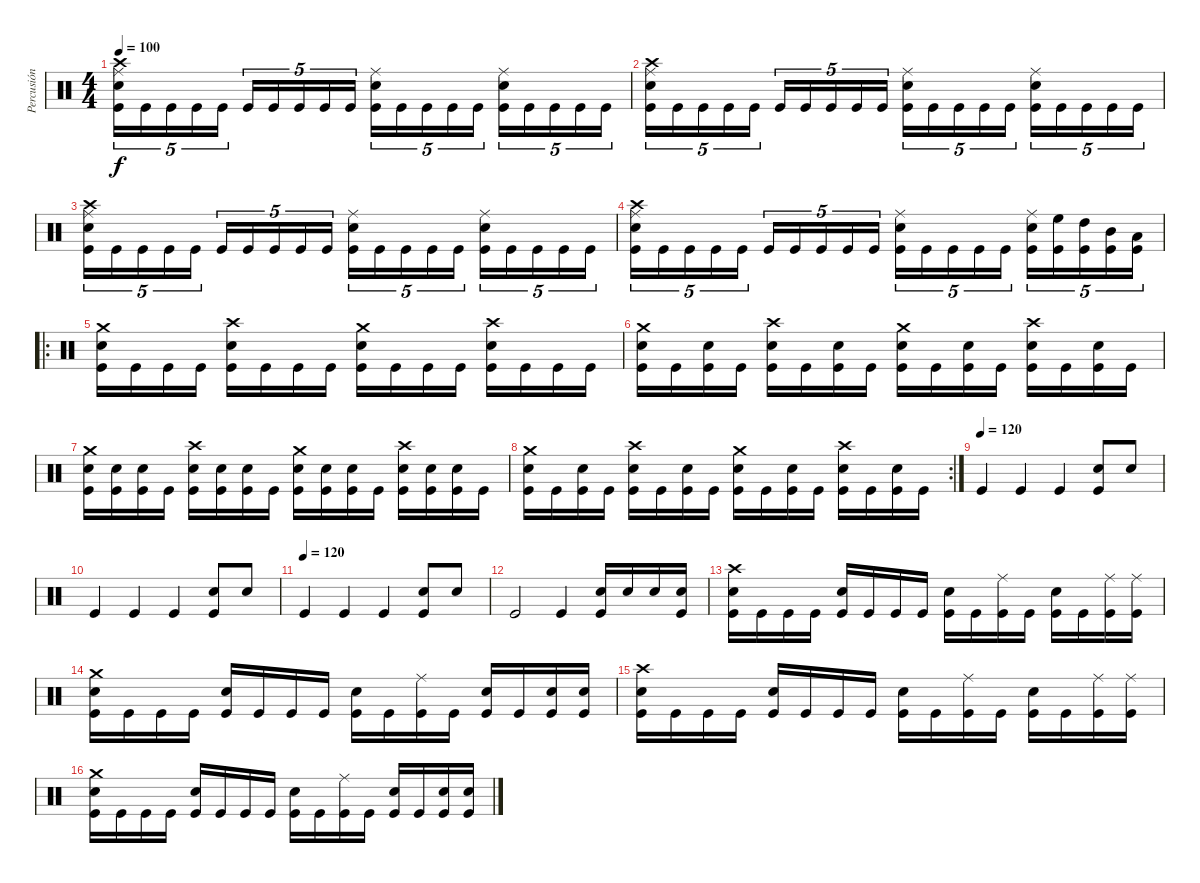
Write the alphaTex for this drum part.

\track ("Percusión" "Percusión") {instrument percussion}
\staff {score}
\articulation defaults
\ts (4 4)
\tempo 100
\clef neutral
\ks c
("Crash high (hit)" "Ride (middle)" "Electric Snare (hit)" "Kick (hit)").16{tu (5 4) dy f} "Kick (hit)".16{tu (5 4)} "Kick (hit)".16{tu (5 4)} "Kick (hit)".16{tu (5 4)} "Kick (hit)".16{tu (5 4)} "Kick (hit)".16{tu (5 4)} "Kick (hit)".16{tu (5 4)} "Kick (hit)".16{tu (5 4)} "Kick (hit)".16{tu (5 4)} "Kick (hit)".16{tu (5 4)} ("Ride (middle)" "Electric Snare (hit)" "Kick (hit)").16{tu (5 4)} "Kick (hit)".16{tu (5 4)} "Kick (hit)".16{tu (5 4)} "Kick (hit)".16{tu (5 4)} "Kick (hit)".16{tu (5 4)} ("Ride (middle)" "Electric Snare (hit)" "Kick (hit)").16{tu (5 4)} "Kick (hit)".16{tu (5 4)} "Kick (hit)".16{tu (5 4)} "Kick (hit)".16{tu (5 4)} "Kick (hit)".16{tu (5 4)} |
("Crash high (hit)" "Ride (middle)" "Electric Snare (hit)" "Kick (hit)").16{tu (5 4)} "Kick (hit)".16{tu (5 4)} "Kick (hit)".16{tu (5 4)} "Kick (hit)".16{tu (5 4)} "Kick (hit)".16{tu (5 4)} "Kick (hit)".16{tu (5 4)} "Kick (hit)".16{tu (5 4)} "Kick (hit)".16{tu (5 4)} "Kick (hit)".16{tu (5 4)} "Kick (hit)".16{tu (5 4)} ("Ride (middle)" "Electric Snare (hit)" "Kick (hit)").16{tu (5 4)} "Kick (hit)".16{tu (5 4)} "Kick (hit)".16{tu (5 4)} "Kick (hit)".16{tu (5 4)} "Kick (hit)".16{tu (5 4)} ("Ride (middle)" "Electric Snare (hit)" "Kick (hit)").16{tu (5 4)} "Kick (hit)".16{tu (5 4)} "Kick (hit)".16{tu (5 4)} "Kick (hit)".16{tu (5 4)} "Kick (hit)".16{tu (5 4)} |
("Crash high (hit)" "Ride (middle)" "Electric Snare (hit)" "Kick (hit)").16{tu (5 4)} "Kick (hit)".16{tu (5 4)} "Kick (hit)".16{tu (5 4)} "Kick (hit)".16{tu (5 4)} "Kick (hit)".16{tu (5 4)} "Kick (hit)".16{tu (5 4)} "Kick (hit)".16{tu (5 4)} "Kick (hit)".16{tu (5 4)} "Kick (hit)".16{tu (5 4)} "Kick (hit)".16{tu (5 4)} ("Ride (middle)" "Electric Snare (hit)" "Kick (hit)").16{tu (5 4)} "Kick (hit)".16{tu (5 4)} "Kick (hit)".16{tu (5 4)} "Kick (hit)".16{tu (5 4)} "Kick (hit)".16{tu (5 4)} ("Ride (middle)" "Electric Snare (hit)" "Kick (hit)").16{tu (5 4)} "Kick (hit)".16{tu (5 4)} "Kick (hit)".16{tu (5 4)} "Kick (hit)".16{tu (5 4)} "Kick (hit)".16{tu (5 4)} |
("Crash high (hit)" "Ride (middle)" "Electric Snare (hit)" "Kick (hit)").16{tu (5 4)} "Kick (hit)".16{tu (5 4)} "Kick (hit)".16{tu (5 4)} "Kick (hit)".16{tu (5 4)} "Kick (hit)".16{tu (5 4)} "Kick (hit)".16{tu (5 4)} "Kick (hit)".16{tu (5 4)} "Kick (hit)".16{tu (5 4)} "Kick (hit)".16{tu (5 4)} "Kick (hit)".16{tu (5 4)} ("Ride (middle)" "Electric Snare (hit)" "Kick (hit)").16{tu (5 4)} "Kick (hit)".16{tu (5 4)} "Kick (hit)".16{tu (5 4)} "Kick (hit)".16{tu (5 4)} "Kick (hit)".16{tu (5 4)} ("Ride (middle)" "Electric Snare (hit)" "Kick (hit)").16{tu (5 4)} ("High Floor Tom (hit)" "Kick (hit)").16{tu (5 4)} ("High Tom (hit)" "Kick (hit)").16{tu (5 4)} ("Mid Tom (hit)" "Kick (hit)").16{tu (5 4)} ("Low Tom (hit)" "Kick (hit)").16{tu (5 4)} |
\ro
("Crash medium (hit)" "Electric Snare (hit)" "Kick (hit)").16 "Kick (hit)".16 "Kick (hit)".16 "Kick (hit)".16 ("Crash high (hit)" "Electric Snare (hit)" "Kick (hit)").16 "Kick (hit)".16 "Kick (hit)".16 "Kick (hit)".16 ("Crash medium (hit)" "Electric Snare (hit)" "Kick (hit)").16 "Kick (hit)".16 "Kick (hit)".16 "Kick (hit)".16 ("Crash high (hit)" "Electric Snare (hit)" "Kick (hit)").16 "Kick (hit)".16 "Kick (hit)".16 "Kick (hit)".16 |
("Crash medium (hit)" "Electric Snare (hit)" "Kick (hit)").16 "Kick (hit)".16 ("Electric Snare (hit)" "Kick (hit)").16 "Kick (hit)".16 ("Crash high (hit)" "Electric Snare (hit)" "Kick (hit)").16 "Kick (hit)".16 ("Electric Snare (hit)" "Kick (hit)").16 "Kick (hit)".16 ("Crash medium (hit)" "Electric Snare (hit)" "Kick (hit)").16 "Kick (hit)".16 ("Electric Snare (hit)" "Kick (hit)").16 "Kick (hit)".16 ("Crash high (hit)" "Electric Snare (hit)" "Kick (hit)").16 "Kick (hit)".16 ("Electric Snare (hit)" "Kick (hit)").16 "Kick (hit)".16 |
("Crash medium (hit)" "Electric Snare (hit)" "Kick (hit)").16 ("Electric Snare (hit)" "Kick (hit)").16 ("Electric Snare (hit)" "Kick (hit)").16 "Kick (hit)".16 ("Crash high (hit)" "Electric Snare (hit)" "Kick (hit)").16 ("Electric Snare (hit)" "Kick (hit)").16 ("Electric Snare (hit)" "Kick (hit)").16 "Kick (hit)".16 ("Crash medium (hit)" "Electric Snare (hit)" "Kick (hit)").16 ("Electric Snare (hit)" "Kick (hit)").16 ("Electric Snare (hit)" "Kick (hit)").16 "Kick (hit)".16 ("Crash high (hit)" "Electric Snare (hit)" "Kick (hit)").16 ("Electric Snare (hit)" "Kick (hit)").16 ("Electric Snare (hit)" "Kick (hit)").16 "Kick (hit)".16 |
\rc 2
("Crash medium (hit)" "Electric Snare (hit)" "Kick (hit)").16 "Kick (hit)".16 ("Electric Snare (hit)" "Kick (hit)").16 "Kick (hit)".16 ("Crash high (hit)" "Electric Snare (hit)" "Kick (hit)").16 "Kick (hit)".16 ("Electric Snare (hit)" "Kick (hit)").16 "Kick (hit)".16 ("Crash medium (hit)" "Electric Snare (hit)" "Kick (hit)").16 "Kick (hit)".16 ("Electric Snare (hit)" "Kick (hit)").16 "Kick (hit)".16 ("Crash high (hit)" "Electric Snare (hit)" "Kick (hit)").16 "Kick (hit)".16 ("Electric Snare (hit)" "Kick (hit)").16 "Kick (hit)".16 |
\tempo (120)
"Kick (hit)".4 "Kick (hit)".4 "Kick (hit)".4 ("Hand Clap (hit)" "Kick (hit)").8 "Hand Clap (hit)".8 |
"Kick (hit)".4 "Kick (hit)".4 "Kick (hit)".4 ("Hand Clap (hit)" "Kick (hit)").8 "Hand Clap (hit)".8 |
\tempo (120)
"Kick (hit)".4 "Kick (hit)".4 "Kick (hit)".4 ("Hand Clap (hit)" "Kick (hit)").8 "Hand Clap (hit)".8 |
"Kick (hit)".2 "Kick (hit)".4 ("Electric Snare (hit)" "Kick (hit)").16 "Electric Snare (hit)".16 "Electric Snare (hit)".16 ("Electric Snare (hit)" "Kick (hit)").16 |
("Crash high (hit)" "Electric Snare (hit)" "Kick (hit)").16 "Kick (hit)".16 "Kick (hit)".16 "Kick (hit)".16 ("Electric Snare (hit)" "Kick (hit)").16 "Kick (hit)".16 "Kick (hit)".16 "Kick (hit)".16 ("Electric Snare (hit)" "Kick (hit)").16 "Kick (hit)".16 ("Ride (middle)" "Kick (hit)").16 "Kick (hit)".16 ("Electric Snare (hit)" "Kick (hit)").16 "Kick (hit)".16 ("Ride (middle)" "Kick (hit)").16 ("Ride (middle)" "Kick (hit)").16 |
("Crash medium (hit)" "Electric Snare (hit)" "Kick (hit)").16 "Kick (hit)".16 "Kick (hit)".16 "Kick (hit)".16 ("Electric Snare (hit)" "Kick (hit)").16 "Kick (hit)".16 "Kick (hit)".16 "Kick (hit)".16 ("Electric Snare (hit)" "Kick (hit)").16 "Kick (hit)".16 ("Ride (middle)" "Kick (hit)").16 "Kick (hit)".16 ("Electric Snare (hit)" "Kick (hit)").16 "Kick (hit)".16 ("Electric Snare (hit)" "Kick (hit)").16 ("Electric Snare (hit)" "Kick (hit)").16 |
("Crash high (hit)" "Electric Snare (hit)" "Kick (hit)").16 "Kick (hit)".16 "Kick (hit)".16 "Kick (hit)".16 ("Electric Snare (hit)" "Kick (hit)").16 "Kick (hit)".16 "Kick (hit)".16 "Kick (hit)".16 ("Electric Snare (hit)" "Kick (hit)").16 "Kick (hit)".16 ("Ride (middle)" "Kick (hit)").16 "Kick (hit)".16 ("Electric Snare (hit)" "Kick (hit)").16 "Kick (hit)".16 ("Ride (middle)" "Kick (hit)").16 ("Ride (middle)" "Kick (hit)").16 |
("Crash medium (hit)" "Electric Snare (hit)" "Kick (hit)").16 "Kick (hit)".16 "Kick (hit)".16 "Kick (hit)".16 ("Electric Snare (hit)" "Kick (hit)").16 "Kick (hit)".16 "Kick (hit)".16 "Kick (hit)".16 ("Electric Snare (hit)" "Kick (hit)").16 "Kick (hit)".16 ("Ride (middle)" "Kick (hit)").16 "Kick (hit)".16 ("Electric Snare (hit)" "Kick (hit)").16 "Kick (hit)".16 ("Electric Snare (hit)" "Kick (hit)").16 ("Electric Snare (hit)" "Kick (hit)").16
